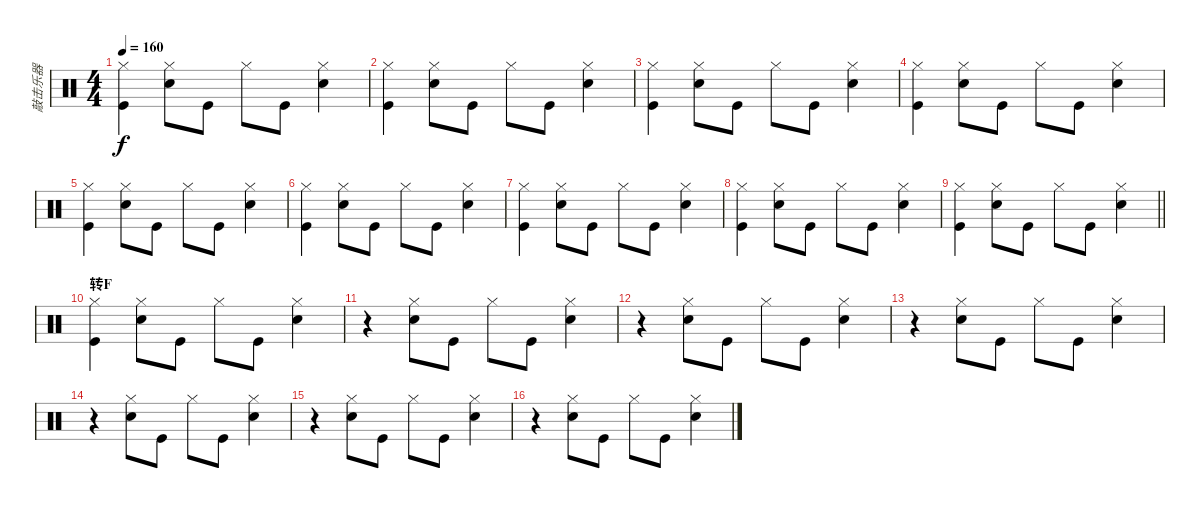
\track ("敲击乐器" "敲击乐器") {instrument percussion}
\staff {score}
\articulation defaults
\ts (4 4)
\tempo 160
\clef neutral
\ks c
("Kick (hit)" "Hi-Hat (closed)").4{dy f} ("Hi-Hat (closed)" "Snare (hit) 2").8 "Kick (hit)".8 "Hi-Hat (closed)".8 "Kick (hit)".8 ("Hi-Hat (closed)" "Snare (hit) 2").4 |
("Kick (hit)" "Hi-Hat (closed)").4 ("Hi-Hat (closed)" "Snare (hit) 2").8 "Kick (hit)".8 "Hi-Hat (closed)".8 "Kick (hit)".8 ("Hi-Hat (closed)" "Snare (hit) 2").4 |
("Kick (hit)" "Hi-Hat (closed)").4 ("Hi-Hat (closed)" "Snare (hit) 2").8 "Kick (hit)".8 "Hi-Hat (closed)".8 "Kick (hit)".8 ("Hi-Hat (closed)" "Snare (hit) 2").4 |
("Kick (hit)" "Hi-Hat (closed)").4 ("Hi-Hat (closed)" "Snare (hit) 2").8 "Kick (hit)".8 "Hi-Hat (closed)".8 "Kick (hit)".8 ("Hi-Hat (closed)" "Snare (hit) 2").4 |
("Kick (hit)" "Hi-Hat (closed)").4 ("Hi-Hat (closed)" "Snare (hit) 2").8 "Kick (hit)".8 "Hi-Hat (closed)".8 "Kick (hit)".8 ("Hi-Hat (closed)" "Snare (hit) 2").4 |
("Kick (hit)" "Hi-Hat (closed)").4 ("Hi-Hat (closed)" "Snare (hit) 2").8 "Kick (hit)".8 "Hi-Hat (closed)".8 "Kick (hit)".8 ("Hi-Hat (closed)" "Snare (hit) 2").4 |
("Kick (hit)" "Hi-Hat (closed)").4 ("Hi-Hat (closed)" "Snare (hit) 2").8 "Kick (hit)".8 "Hi-Hat (closed)".8 "Kick (hit)".8 ("Hi-Hat (closed)" "Snare (hit) 2").4 |
("Kick (hit)" "Hi-Hat (closed)").4 ("Hi-Hat (closed)" "Snare (hit) 2").8 "Kick (hit)".8 "Hi-Hat (closed)".8 "Kick (hit)".8 ("Hi-Hat (closed)" "Snare (hit) 2").4 |
\barLineRight lightlight
("Kick (hit)" "Hi-Hat (closed)").4 ("Hi-Hat (closed)" "Snare (hit) 2").8 "Kick (hit)".8 "Hi-Hat (closed)".8 "Kick (hit)".8 ("Hi-Hat (closed)" "Snare (hit) 2").4 |
\section ("" "转F")
("Kick (hit)" "Hi-Hat (closed)").4 ("Hi-Hat (closed)" "Snare (hit) 2").8 "Kick (hit)".8 "Hi-Hat (closed)".8 "Kick (hit)".8 ("Hi-Hat (closed)" "Snare (hit) 2").4 |
r.4 ("Hi-Hat (closed)" "Snare (hit) 2").8 "Kick (hit)".8 "Hi-Hat (closed)".8 "Kick (hit)".8 ("Hi-Hat (closed)" "Snare (hit) 2").4 |
r.4 ("Hi-Hat (closed)" "Snare (hit) 2").8 "Kick (hit)".8 "Hi-Hat (closed)".8 "Kick (hit)".8 ("Hi-Hat (closed)" "Snare (hit) 2").4 |
r.4 ("Hi-Hat (closed)" "Snare (hit) 2").8 "Kick (hit)".8 "Hi-Hat (closed)".8 "Kick (hit)".8 ("Hi-Hat (closed)" "Snare (hit) 2").4 |
r.4 ("Hi-Hat (closed)" "Snare (hit) 2").8 "Kick (hit)".8 "Hi-Hat (closed)".8 "Kick (hit)".8 ("Hi-Hat (closed)" "Snare (hit) 2").4 |
r.4 ("Hi-Hat (closed)" "Snare (hit) 2").8 "Kick (hit)".8 "Hi-Hat (closed)".8 "Kick (hit)".8 ("Hi-Hat (closed)" "Snare (hit) 2").4 |
r.4 ("Hi-Hat (closed)" "Snare (hit) 2").8 "Kick (hit)".8 "Hi-Hat (closed)".8 "Kick (hit)".8 ("Hi-Hat (closed)" "Snare (hit) 2").4
